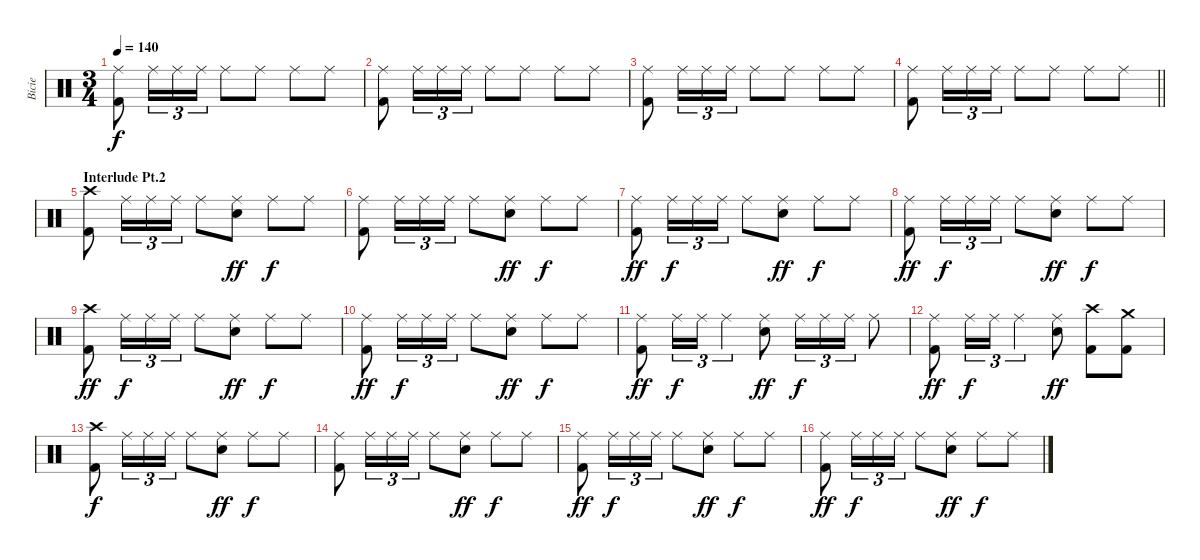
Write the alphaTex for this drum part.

\track ("Bicie" "Bicie") {instrument percussion}
\staff {score}
\articulation defaults
\ts (3 4)
\tempo 140
\clef neutral
\ks c
("Ride (middle)" "Kick (hit) 2").8{dy f} "Ride (middle)".16{tu (3 2)} "Ride (middle)".16{tu (3 2)} "Ride (middle)".16{tu (3 2)} "Ride (middle)".8 "Ride (middle)".8 "Ride (middle)".8 "Ride (middle)".8 |
("Ride (middle)" "Kick (hit) 2").8 "Ride (middle)".16{tu (3 2)} "Ride (middle)".16{tu (3 2)} "Ride (middle)".16{tu (3 2)} "Ride (middle)".8 "Ride (middle)".8 "Ride (middle)".8 "Ride (middle)".8 |
("Ride (middle)" "Kick (hit) 2").8 "Ride (middle)".16{tu (3 2)} "Ride (middle)".16{tu (3 2)} "Ride (middle)".16{tu (3 2)} "Ride (middle)".8 "Ride (middle)".8 "Ride (middle)".8 "Ride (middle)".8 |
\barLineRight lightlight
("Ride (middle)" "Kick (hit) 2").8 "Ride (middle)".16{tu (3 2)} "Ride (middle)".16{tu (3 2)} "Ride (middle)".16{tu (3 2)} "Ride (middle)".8 "Ride (middle)".8 "Ride (middle)".8 "Ride (middle)".8 |
\section ("" "Interlude Pt.2")
("Crash high (hit)" "Kick (hit) 2").8 "Ride (middle)".16{tu (3 2)} "Ride (middle)".16{tu (3 2)} "Ride (middle)".16{tu (3 2)} "Ride (middle)".8 ("Ride (middle)" "Snare (hit) 2").8{dy ff} "Ride (middle)".8{dy f} "Ride (middle)".8 |
("Ride (middle)" "Kick (hit) 2").8 "Ride (middle)".16{tu (3 2)} "Ride (middle)".16{tu (3 2)} "Ride (middle)".16{tu (3 2)} "Ride (middle)".8 ("Ride (middle)" "Snare (hit) 2").8{dy ff} "Ride (middle)".8{dy f} "Ride (middle)".8 |
("Ride (middle)" "Kick (hit) 2").8{dy ff} "Ride (middle)".16{tu (3 2) dy f} "Ride (middle)".16{tu (3 2)} "Ride (middle)".16{tu (3 2)} "Ride (middle)".8 ("Ride (middle)" "Snare (hit) 2").8{dy ff} "Ride (middle)".8{dy f} "Ride (middle)".8 |
("Ride (middle)" "Kick (hit) 2").8{dy ff} "Ride (middle)".16{tu (3 2) dy f} "Ride (middle)".16{tu (3 2)} "Ride (middle)".16{tu (3 2)} "Ride (middle)".8 ("Ride (middle)" "Snare (hit) 2").8{dy ff} "Ride (middle)".8{dy f} "Ride (middle)".8 |
("Crash high (hit)" "Kick (hit) 2").8{dy ff} "Ride (middle)".16{tu (3 2) dy f} "Ride (middle)".16{tu (3 2)} "Ride (middle)".16{tu (3 2)} "Ride (middle)".8 ("Ride (middle)" "Snare (hit) 2").8{dy ff} "Ride (middle)".8{dy f} "Ride (middle)".8 |
("Ride (middle)" "Kick (hit) 2").8{dy ff} "Ride (middle)".16{tu (3 2) dy f} "Ride (middle)".16{tu (3 2)} "Ride (middle)".16{tu (3 2)} "Ride (middle)".8 ("Ride (middle)" "Snare (hit) 2").8{dy ff} "Ride (middle)".8{dy f} "Ride (middle)".8 |
("Ride (middle)" "Kick (hit) 2").8{dy ff} "Ride (middle)".16{tu (3 2) dy f} "Ride (middle)".16{tu (3 2)} "Ride (middle)".4{tu (3 2)} ("Ride (middle)" "Snare (hit) 2").8{dy ff} "Ride (middle)".16{tu (3 2) dy f} "Ride (middle)".16{tu (3 2)} "Ride (middle)".16{tu (3 2)} "Ride (middle)".8 |
("Ride (middle)" "Kick (hit) 2").8{dy ff} "Ride (middle)".16{tu (3 2) dy f} "Ride (middle)".16{tu (3 2)} "Ride (middle)".4{tu (3 2)} ("Ride (middle)" "Snare (hit) 2").8{dy ff} ("Crash high (hit)" "Kick (hit) 2").8 ("Crash medium (hit)" "Kick (hit) 2").8 |
("Crash high (hit)" "Kick (hit) 2").8{dy f} "Ride (middle)".16{tu (3 2)} "Ride (middle)".16{tu (3 2)} "Ride (middle)".16{tu (3 2)} "Ride (middle)".8 ("Ride (middle)" "Snare (hit) 2").8{dy ff} "Ride (middle)".8{dy f} "Ride (middle)".8 |
("Ride (middle)" "Kick (hit) 2").8 "Ride (middle)".16{tu (3 2)} "Ride (middle)".16{tu (3 2)} "Ride (middle)".16{tu (3 2)} "Ride (middle)".8 ("Ride (middle)" "Snare (hit) 2").8{dy ff} "Ride (middle)".8{dy f} "Ride (middle)".8 |
("Ride (middle)" "Kick (hit) 2").8{dy ff} "Ride (middle)".16{tu (3 2) dy f} "Ride (middle)".16{tu (3 2)} "Ride (middle)".16{tu (3 2)} "Ride (middle)".8 ("Ride (middle)" "Snare (hit) 2").8{dy ff} "Ride (middle)".8{dy f} "Ride (middle)".8 |
("Ride (middle)" "Kick (hit) 2").8{dy ff} "Ride (middle)".16{tu (3 2) dy f} "Ride (middle)".16{tu (3 2)} "Ride (middle)".16{tu (3 2)} "Ride (middle)".8 ("Ride (middle)" "Snare (hit) 2").8{dy ff} "Ride (middle)".8{dy f} "Ride (middle)".8
